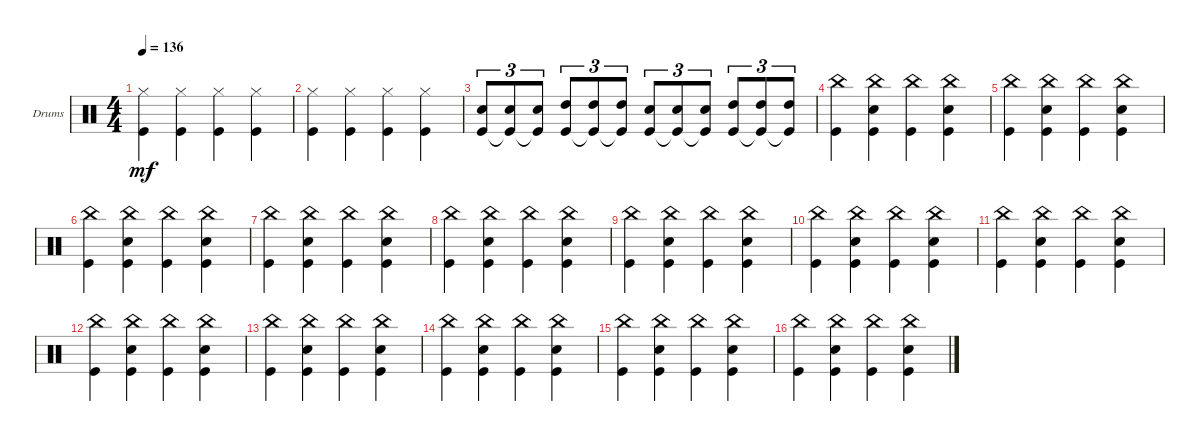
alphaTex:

\defaultSystemsLayout 4
\bracketExtendMode groupsimilarinstruments
\firstSystemTrackNameOrientation horizontal
\otherSystemsTrackNameOrientation horizontal
\track ("Drumkit" "Drums") {instrument percussion}
\staff {score}
\articulation defaults
\ts (4 4)
\tempo 136
\clef neutral
\ks c
("Hi-Hat (closed)" "Kick (hit)").4{dy mf} ("Hi-Hat (closed)" "Kick (hit)").4 ("Hi-Hat (closed)" "Kick (hit)").4 ("Hi-Hat (closed)" "Kick (hit)").4 |
("Hi-Hat (closed)" "Kick (hit)").4 ("Hi-Hat (closed)" "Kick (hit)").4 ("Hi-Hat (closed)" "Kick (hit)").4 ("Hi-Hat (closed)" "Kick (hit)").4 |
("Snare (hit) 2" "Kick (hit)").8{tu (3 2)} ("Snare (hit) 2" "Kick (hit)"{t}).8{tu (3 2)} ("Snare (hit) 2" "Kick (hit)"{t}).8{tu (3 2)} ("High Tom (hit)" "Kick (hit)").8{tu (3 2)} ("High Tom (hit)" "Kick (hit)"{t}).8{tu (3 2)} ("High Tom (hit)" "Kick (hit)"{t}).8{tu (3 2)} ("Snare (hit) 2" "Kick (hit)").8{tu (3 2)} ("Snare (hit) 2" "Kick (hit)"{t}).8{tu (3 2)} ("Snare (hit) 2" "Kick (hit)"{t}).8{tu (3 2)} ("High Tom (hit)" "Kick (hit)").8{tu (3 2)} ("High Tom (hit)" "Kick (hit)"{t}).8{tu (3 2)} ("High Tom (hit)" "Kick (hit)"{t}).8{tu (3 2)} |
("Kick (hit)" "China (hit)").4 ("Kick (hit)" "Snare (hit) 2" "China (hit)").4 ("Kick (hit)" "China (hit)").4 ("Kick (hit)" "Snare (hit) 2" "China (hit)").4 |
("Kick (hit)" "China (hit)").4 ("Kick (hit)" "Snare (hit) 2" "China (hit)").4 ("Kick (hit)" "China (hit)").4 ("Kick (hit)" "Snare (hit) 2" "China (hit)").4 |
("Kick (hit)" "China (hit)").4 ("Kick (hit)" "Snare (hit) 2" "China (hit)").4 ("Kick (hit)" "China (hit)").4 ("Kick (hit)" "Snare (hit) 2" "China (hit)").4 |
("Kick (hit)" "China (hit)").4 ("Kick (hit)" "Snare (hit) 2" "China (hit)").4 ("Kick (hit)" "China (hit)").4 ("Kick (hit)" "Snare (hit) 2" "China (hit)").4 |
("Kick (hit)" "China (hit)").4 ("Kick (hit)" "Snare (hit) 2" "China (hit)").4 ("Kick (hit)" "China (hit)").4 ("Kick (hit)" "Snare (hit) 2" "China (hit)").4 |
("Kick (hit)" "China (hit)").4 ("Kick (hit)" "Snare (hit) 2" "China (hit)").4 ("Kick (hit)" "China (hit)").4 ("Kick (hit)" "Snare (hit) 2" "China (hit)").4 |
("Kick (hit)" "China (hit)").4 ("Kick (hit)" "Snare (hit) 2" "China (hit)").4 ("Kick (hit)" "China (hit)").4 ("Kick (hit)" "Snare (hit) 2" "China (hit)").4 |
("Kick (hit)" "China (hit)").4 ("Kick (hit)" "Snare (hit) 2" "China (hit)").4 ("Kick (hit)" "China (hit)").4 ("Kick (hit)" "Snare (hit) 2" "China (hit)").4 |
("Kick (hit)" "China (hit)").4 ("Kick (hit)" "Snare (hit) 2" "China (hit)").4 ("Kick (hit)" "China (hit)").4 ("Kick (hit)" "Snare (hit) 2" "China (hit)").4 |
("Kick (hit)" "China (hit)").4 ("Kick (hit)" "Snare (hit) 2" "China (hit)").4 ("Kick (hit)" "China (hit)").4 ("Kick (hit)" "Snare (hit) 2" "China (hit)").4 |
("Kick (hit)" "China (hit)").4 ("Kick (hit)" "Snare (hit) 2" "China (hit)").4 ("Kick (hit)" "China (hit)").4 ("Kick (hit)" "Snare (hit) 2" "China (hit)").4 |
("Kick (hit)" "China (hit)").4 ("Kick (hit)" "Snare (hit) 2" "China (hit)").4 ("Kick (hit)" "China (hit)").4 ("Kick (hit)" "Snare (hit) 2" "China (hit)").4 |
("Kick (hit)" "China (hit)").4 ("Kick (hit)" "Snare (hit) 2" "China (hit)").4 ("Kick (hit)" "China (hit)").4 ("Kick (hit)" "Snare (hit) 2" "China (hit)").4
